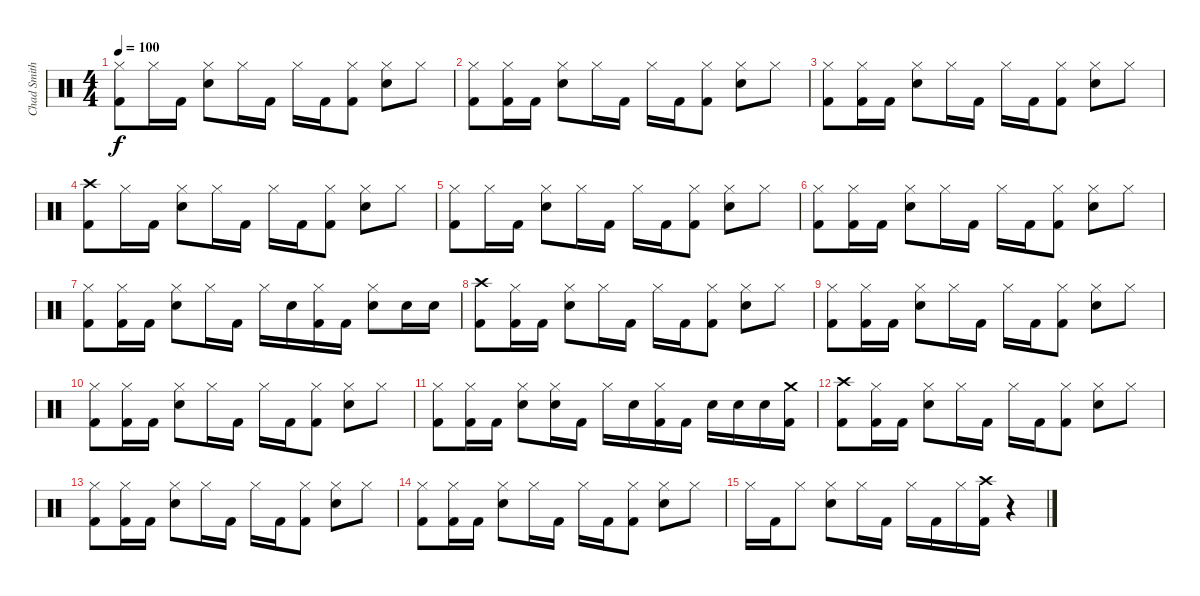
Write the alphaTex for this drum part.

\track ("Chad Smith" "Chad Smith") {instrument percussion}
\staff {score}
\articulation defaults
\ts (4 4)
\tempo 100
\clef neutral
\ks c
("Hi-Hat (closed)" "Kick (hit) 2").8{dy f} "Hi-Hat (closed)".16 "Kick (hit) 2".16 ("Hi-Hat (closed)" "Snare (hit) 2").8 "Hi-Hat (closed)".16 "Kick (hit) 2".16 "Hi-Hat (closed)".16 "Kick (hit) 2".16 ("Hi-Hat (closed)" "Kick (hit) 2").8 ("Hi-Hat (closed)" "Snare (hit) 2").8 "Hi-Hat (closed)".8 |
("Hi-Hat (closed)" "Kick (hit) 2").8 ("Hi-Hat (closed)" "Kick (hit) 2").16 "Kick (hit) 2".16 ("Hi-Hat (closed)" "Snare (hit) 2").8 "Hi-Hat (closed)".16 "Kick (hit) 2".16 "Hi-Hat (closed)".16 "Kick (hit) 2".16 ("Hi-Hat (closed)" "Kick (hit) 2").8 ("Hi-Hat (closed)" "Snare (hit) 2").8 "Hi-Hat (closed)".8 |
("Hi-Hat (closed)" "Kick (hit) 2").8 ("Hi-Hat (closed)" "Kick (hit) 2").16 "Kick (hit) 2".16 ("Hi-Hat (closed)" "Snare (hit) 2").8 "Hi-Hat (closed)".16 "Kick (hit) 2".16 "Hi-Hat (closed)".16 "Kick (hit) 2".16 ("Hi-Hat (closed)" "Kick (hit) 2").8 ("Hi-Hat (closed)" "Snare (hit) 2").8 "Hi-Hat (closed)".8 |
("Crash high (hit)" "Kick (hit) 2").8 "Hi-Hat (closed)".16 "Kick (hit) 2".16 ("Hi-Hat (closed)" "Snare (hit) 2").8 "Hi-Hat (closed)".16 "Kick (hit) 2".16 "Hi-Hat (closed)".16 "Kick (hit) 2".16 ("Hi-Hat (closed)" "Kick (hit) 2").8 ("Hi-Hat (closed)" "Snare (hit) 2").8 "Hi-Hat (closed)".8 |
("Hi-Hat (closed)" "Kick (hit) 2").8 "Hi-Hat (closed)".16 "Kick (hit) 2".16 ("Hi-Hat (closed)" "Snare (hit) 2").8 "Hi-Hat (closed)".16 "Kick (hit) 2".16 "Hi-Hat (closed)".16 "Kick (hit) 2".16 ("Hi-Hat (closed)" "Kick (hit) 2").8 ("Hi-Hat (closed)" "Snare (hit) 2").8 "Hi-Hat (closed)".8 |
("Hi-Hat (closed)" "Kick (hit) 2").8 ("Hi-Hat (closed)" "Kick (hit) 2").16 "Kick (hit) 2".16 ("Hi-Hat (closed)" "Snare (hit) 2").8 "Hi-Hat (closed)".16 "Kick (hit) 2".16 "Hi-Hat (closed)".16 "Kick (hit) 2".16 ("Hi-Hat (closed)" "Kick (hit) 2").8 ("Hi-Hat (closed)" "Snare (hit) 2").8 "Hi-Hat (closed)".8 |
("Hi-Hat (closed)" "Kick (hit) 2").8 ("Hi-Hat (closed)" "Kick (hit) 2").16 "Kick (hit) 2".16 ("Hi-Hat (closed)" "Snare (hit) 2").8 "Hi-Hat (closed)".16 "Kick (hit) 2".16 "Hi-Hat (closed)".16 "Snare (hit) 2".16 ("Hi-Hat (closed)" "Kick (hit) 2").16 "Kick (hit) 2".16 ("Hi-Hat (closed)" "Snare (hit) 2").8 "Snare (hit) 2".16 "Snare (hit) 2".16 |
("Crash high (hit)" "Kick (hit) 2").8 ("Hi-Hat (closed)" "Kick (hit) 2").16 "Kick (hit) 2".16 ("Hi-Hat (closed)" "Snare (hit) 2").8 "Hi-Hat (closed)".16 "Kick (hit) 2".16 "Hi-Hat (closed)".16 "Kick (hit) 2".16 ("Hi-Hat (closed)" "Kick (hit) 2").8 ("Hi-Hat (closed)" "Snare (hit) 2").8 "Hi-Hat (closed)".8 |
("Hi-Hat (closed)" "Kick (hit) 2").8 ("Hi-Hat (closed)" "Kick (hit) 2").16 "Kick (hit) 2".16 ("Hi-Hat (closed)" "Snare (hit) 2").8 "Hi-Hat (closed)".16 "Kick (hit) 2".16 "Hi-Hat (closed)".16 "Kick (hit) 2".16 ("Hi-Hat (closed)" "Kick (hit) 2").8 ("Hi-Hat (closed)" "Snare (hit) 2").8 "Hi-Hat (closed)".8 |
("Hi-Hat (closed)" "Kick (hit) 2").8 ("Hi-Hat (closed)" "Kick (hit) 2").16 "Kick (hit) 2".16 ("Hi-Hat (closed)" "Snare (hit) 2").8 "Hi-Hat (closed)".16 "Kick (hit) 2".16 "Hi-Hat (closed)".16 "Kick (hit) 2".16 ("Hi-Hat (closed)" "Kick (hit) 2").8 ("Hi-Hat (closed)" "Snare (hit) 2").8 "Hi-Hat (closed)".8 |
("Hi-Hat (closed)" "Kick (hit) 2").8 ("Hi-Hat (closed)" "Kick (hit) 2").16 "Kick (hit) 2".16 ("Hi-Hat (closed)" "Snare (hit) 2").8 ("Hi-Hat (closed)" "Snare (hit) 2").16 "Kick (hit) 2".16 "Hi-Hat (closed)".16 "Snare (hit) 2".16 ("Hi-Hat (closed)" "Kick (hit) 2").16 "Kick (hit) 2".16 "Snare (hit) 2".16 "Snare (hit) 2".16 "Snare (hit) 2".16 ("Crash medium (hit)" "Kick (hit) 2").16 |
("Crash high (hit)" "Kick (hit) 2").8 ("Hi-Hat (closed)" "Kick (hit) 2").16 "Kick (hit) 2".16 ("Hi-Hat (closed)" "Snare (hit) 2").8 "Hi-Hat (closed)".16 "Kick (hit) 2".16 "Hi-Hat (closed)".16 "Kick (hit) 2".16 ("Hi-Hat (closed)" "Kick (hit) 2").8 ("Hi-Hat (closed)" "Snare (hit) 2").8 "Hi-Hat (closed)".8 |
("Hi-Hat (closed)" "Kick (hit) 2").8 ("Hi-Hat (closed)" "Kick (hit) 2").16 "Kick (hit) 2".16 ("Hi-Hat (closed)" "Snare (hit) 2").8 "Hi-Hat (closed)".16 "Kick (hit) 2".16 "Hi-Hat (closed)".16 "Kick (hit) 2".16 ("Hi-Hat (closed)" "Kick (hit) 2").8 ("Hi-Hat (closed)" "Snare (hit) 2").8 "Hi-Hat (closed)".8 |
("Hi-Hat (closed)" "Kick (hit) 2").8 ("Hi-Hat (closed)" "Kick (hit) 2").16 "Kick (hit) 2".16 ("Hi-Hat (closed)" "Snare (hit) 2").8 "Hi-Hat (closed)".16 "Kick (hit) 2".16 "Hi-Hat (closed)".16 "Kick (hit) 2".16 ("Hi-Hat (closed)" "Kick (hit) 2").8 ("Hi-Hat (closed)" "Snare (hit) 2").8 "Hi-Hat (closed)".8 |
"Hi-Hat (closed)".16 "Kick (hit) 2".16 "Hi-Hat (closed)".8 ("Hi-Hat (closed)" "Snare (hit) 2").8 "Hi-Hat (closed)".16 "Kick (hit) 2".16 "Hi-Hat (closed)".16 "Kick (hit) 2".16 "Hi-Hat (closed)".16 ("Crash high (hit)" "Kick (hit) 2").16 r.4
